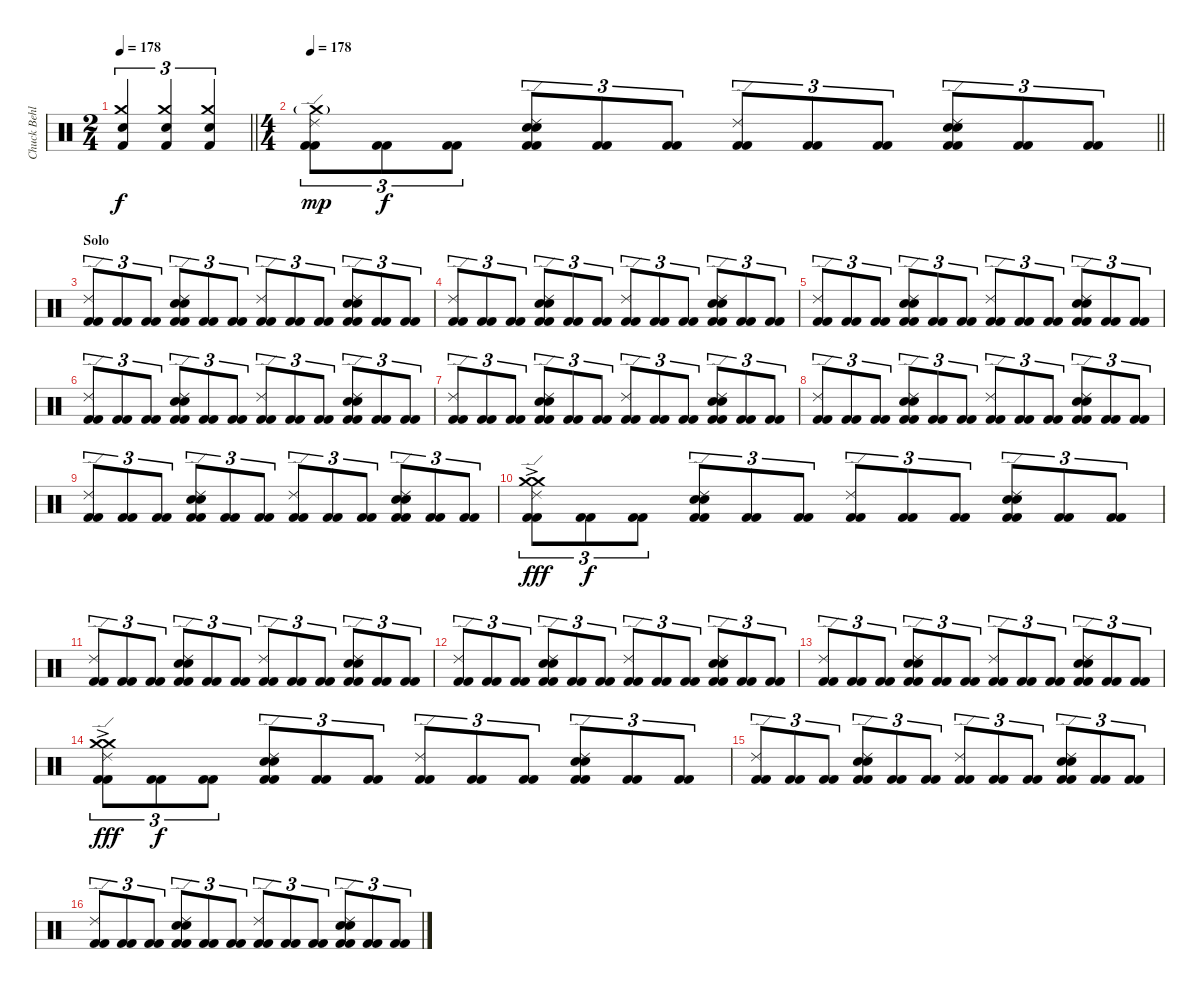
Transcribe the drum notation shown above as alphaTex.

\track ("Chuck Behler" "Chuck Behl") {instrument percussion}
\staff {score}
\articulation defaults
\ts (2 4)
\tempo 178
\clef neutral
\barLineRight lightlight
\ks c
("Electric Snare (hit)" "Crash medium (hit)" "Kick (hit) 2").4{tu (3 2) dy f} ("Electric Snare (hit)" "Crash medium (hit)" "Kick (hit) 2").4{tu (3 2)} ("Electric Snare (hit)" "Crash medium (hit)" "Kick (hit) 2").4{tu (3 2)} |
\ts (4 4)
\section ("" "")
\tempo 178
\barLineRight lightlight
("Crash medium (hit)"{g} "Ride (edge) 2" "Kick (hit) 2" "Kick (hit) 2").8{tu (3 2) dy mp} ("Kick (hit) 2" "Kick (hit) 2").8{tu (3 2) dy f} ("Kick (hit) 2" "Kick (hit) 2").8{tu (3 2)} ("Ride (edge) 2" "Snare (hit) 2" "Electric Snare (hit)" "Kick (hit) 2" "Kick (hit) 2").8{tu (3 2)} ("Kick (hit) 2" "Kick (hit) 2").8{tu (3 2)} ("Kick (hit) 2" "Kick (hit) 2").8{tu (3 2)} ("Ride (edge) 2" "Kick (hit) 2" "Kick (hit) 2").8{tu (3 2)} ("Kick (hit) 2" "Kick (hit) 2").8{tu (3 2)} ("Kick (hit) 2" "Kick (hit) 2").8{tu (3 2)} ("Ride (edge) 2" "Snare (hit) 2" "Electric Snare (hit)" "Kick (hit) 2" "Kick (hit) 2").8{tu (3 2)} ("Kick (hit) 2" "Kick (hit) 2").8{tu (3 2)} ("Kick (hit) 2" "Kick (hit) 2").8{tu (3 2)} |
\section ("" "Solo ")
("Ride (edge) 2" "Kick (hit) 2" "Kick (hit) 2").8{tu (3 2)} ("Kick (hit) 2" "Kick (hit) 2").8{tu (3 2)} ("Kick (hit) 2" "Kick (hit) 2").8{tu (3 2)} ("Ride (edge) 2" "Snare (hit) 2" "Electric Snare (hit)" "Kick (hit) 2" "Kick (hit) 2").8{tu (3 2)} ("Kick (hit) 2" "Kick (hit) 2").8{tu (3 2)} ("Kick (hit) 2" "Kick (hit) 2").8{tu (3 2)} ("Ride (edge) 2" "Kick (hit) 2" "Kick (hit) 2").8{tu (3 2)} ("Kick (hit) 2" "Kick (hit) 2").8{tu (3 2)} ("Kick (hit) 2" "Kick (hit) 2").8{tu (3 2)} ("Ride (edge) 2" "Snare (hit) 2" "Electric Snare (hit)" "Kick (hit) 2" "Kick (hit) 2").8{tu (3 2)} ("Kick (hit) 2" "Kick (hit) 2").8{tu (3 2)} ("Kick (hit) 2" "Kick (hit) 2").8{tu (3 2)} |
("Ride (edge) 2" "Kick (hit) 2" "Kick (hit) 2").8{tu (3 2)} ("Kick (hit) 2" "Kick (hit) 2").8{tu (3 2)} ("Kick (hit) 2" "Kick (hit) 2").8{tu (3 2)} ("Ride (edge) 2" "Snare (hit) 2" "Electric Snare (hit)" "Kick (hit) 2" "Kick (hit) 2").8{tu (3 2)} ("Kick (hit) 2" "Kick (hit) 2").8{tu (3 2)} ("Kick (hit) 2" "Kick (hit) 2").8{tu (3 2)} ("Ride (edge) 2" "Kick (hit) 2" "Kick (hit) 2").8{tu (3 2)} ("Kick (hit) 2" "Kick (hit) 2").8{tu (3 2)} ("Kick (hit) 2" "Kick (hit) 2").8{tu (3 2)} ("Ride (edge) 2" "Snare (hit) 2" "Electric Snare (hit)" "Kick (hit) 2" "Kick (hit) 2").8{tu (3 2)} ("Kick (hit) 2" "Kick (hit) 2").8{tu (3 2)} ("Kick (hit) 2" "Kick (hit) 2").8{tu (3 2)} |
("Ride (edge) 2" "Kick (hit) 2" "Kick (hit) 2").8{tu (3 2)} ("Kick (hit) 2" "Kick (hit) 2").8{tu (3 2)} ("Kick (hit) 2" "Kick (hit) 2").8{tu (3 2)} ("Ride (edge) 2" "Snare (hit) 2" "Electric Snare (hit)" "Kick (hit) 2" "Kick (hit) 2").8{tu (3 2)} ("Kick (hit) 2" "Kick (hit) 2").8{tu (3 2)} ("Kick (hit) 2" "Kick (hit) 2").8{tu (3 2)} ("Ride (edge) 2" "Kick (hit) 2" "Kick (hit) 2").8{tu (3 2)} ("Kick (hit) 2" "Kick (hit) 2").8{tu (3 2)} ("Kick (hit) 2" "Kick (hit) 2").8{tu (3 2)} ("Ride (edge) 2" "Snare (hit) 2" "Electric Snare (hit)" "Kick (hit) 2" "Kick (hit) 2").8{tu (3 2)} ("Kick (hit) 2" "Kick (hit) 2").8{tu (3 2)} ("Kick (hit) 2" "Kick (hit) 2").8{tu (3 2)} |
("Ride (edge) 2" "Kick (hit) 2" "Kick (hit) 2").8{tu (3 2)} ("Kick (hit) 2" "Kick (hit) 2").8{tu (3 2)} ("Kick (hit) 2" "Kick (hit) 2").8{tu (3 2)} ("Ride (edge) 2" "Snare (hit) 2" "Electric Snare (hit)" "Kick (hit) 2" "Kick (hit) 2").8{tu (3 2)} ("Kick (hit) 2" "Kick (hit) 2").8{tu (3 2)} ("Kick (hit) 2" "Kick (hit) 2").8{tu (3 2)} ("Ride (edge) 2" "Kick (hit) 2" "Kick (hit) 2").8{tu (3 2)} ("Kick (hit) 2" "Kick (hit) 2").8{tu (3 2)} ("Kick (hit) 2" "Kick (hit) 2").8{tu (3 2)} ("Ride (edge) 2" "Snare (hit) 2" "Electric Snare (hit)" "Kick (hit) 2" "Kick (hit) 2").8{tu (3 2)} ("Kick (hit) 2" "Kick (hit) 2").8{tu (3 2)} ("Kick (hit) 2" "Kick (hit) 2").8{tu (3 2)} |
("Ride (edge) 2" "Kick (hit) 2" "Kick (hit) 2").8{tu (3 2)} ("Kick (hit) 2" "Kick (hit) 2").8{tu (3 2)} ("Kick (hit) 2" "Kick (hit) 2").8{tu (3 2)} ("Ride (edge) 2" "Snare (hit) 2" "Electric Snare (hit)" "Kick (hit) 2" "Kick (hit) 2").8{tu (3 2)} ("Kick (hit) 2" "Kick (hit) 2").8{tu (3 2)} ("Kick (hit) 2" "Kick (hit) 2").8{tu (3 2)} ("Ride (edge) 2" "Kick (hit) 2" "Kick (hit) 2").8{tu (3 2)} ("Kick (hit) 2" "Kick (hit) 2").8{tu (3 2)} ("Kick (hit) 2" "Kick (hit) 2").8{tu (3 2)} ("Ride (edge) 2" "Snare (hit) 2" "Electric Snare (hit)" "Kick (hit) 2" "Kick (hit) 2").8{tu (3 2)} ("Kick (hit) 2" "Kick (hit) 2").8{tu (3 2)} ("Kick (hit) 2" "Kick (hit) 2").8{tu (3 2)} |
("Ride (edge) 2" "Kick (hit) 2" "Kick (hit) 2").8{tu (3 2)} ("Kick (hit) 2" "Kick (hit) 2").8{tu (3 2)} ("Kick (hit) 2" "Kick (hit) 2").8{tu (3 2)} ("Ride (edge) 2" "Snare (hit) 2" "Electric Snare (hit)" "Kick (hit) 2" "Kick (hit) 2").8{tu (3 2)} ("Kick (hit) 2" "Kick (hit) 2").8{tu (3 2)} ("Kick (hit) 2" "Kick (hit) 2").8{tu (3 2)} ("Ride (edge) 2" "Kick (hit) 2" "Kick (hit) 2").8{tu (3 2)} ("Kick (hit) 2" "Kick (hit) 2").8{tu (3 2)} ("Kick (hit) 2" "Kick (hit) 2").8{tu (3 2)} ("Ride (edge) 2" "Snare (hit) 2" "Electric Snare (hit)" "Kick (hit) 2" "Kick (hit) 2").8{tu (3 2)} ("Kick (hit) 2" "Kick (hit) 2").8{tu (3 2)} ("Kick (hit) 2" "Kick (hit) 2").8{tu (3 2)} |
("Ride (edge) 2" "Kick (hit) 2" "Kick (hit) 2").8{tu (3 2)} ("Kick (hit) 2" "Kick (hit) 2").8{tu (3 2)} ("Kick (hit) 2" "Kick (hit) 2").8{tu (3 2)} ("Ride (edge) 2" "Snare (hit) 2" "Electric Snare (hit)" "Kick (hit) 2" "Kick (hit) 2").8{tu (3 2)} ("Kick (hit) 2" "Kick (hit) 2").8{tu (3 2)} ("Kick (hit) 2" "Kick (hit) 2").8{tu (3 2)} ("Ride (edge) 2" "Kick (hit) 2" "Kick (hit) 2").8{tu (3 2)} ("Kick (hit) 2" "Kick (hit) 2").8{tu (3 2)} ("Kick (hit) 2" "Kick (hit) 2").8{tu (3 2)} ("Ride (edge) 2" "Snare (hit) 2" "Electric Snare (hit)" "Kick (hit) 2" "Kick (hit) 2").8{tu (3 2)} ("Kick (hit) 2" "Kick (hit) 2").8{tu (3 2)} ("Kick (hit) 2" "Kick (hit) 2").8{tu (3 2)} |
("Crash medium (hit)"{ac} "Crash medium (hit)"{ac} "Ride (edge) 2" "Kick (hit) 2" "Kick (hit) 2").8{tu (3 2) dy fff} ("Kick (hit) 2" "Kick (hit) 2").8{tu (3 2) dy f} ("Kick (hit) 2" "Kick (hit) 2").8{tu (3 2)} ("Ride (edge) 2" "Snare (hit) 2" "Electric Snare (hit)" "Kick (hit) 2" "Kick (hit) 2").8{tu (3 2)} ("Kick (hit) 2" "Kick (hit) 2").8{tu (3 2)} ("Kick (hit) 2" "Kick (hit) 2").8{tu (3 2)} ("Ride (edge) 2" "Kick (hit) 2" "Kick (hit) 2").8{tu (3 2)} ("Kick (hit) 2" "Kick (hit) 2").8{tu (3 2)} ("Kick (hit) 2" "Kick (hit) 2").8{tu (3 2)} ("Ride (edge) 2" "Snare (hit) 2" "Electric Snare (hit)" "Kick (hit) 2" "Kick (hit) 2").8{tu (3 2)} ("Kick (hit) 2" "Kick (hit) 2").8{tu (3 2)} ("Kick (hit) 2" "Kick (hit) 2").8{tu (3 2)} |
("Ride (edge) 2" "Kick (hit) 2" "Kick (hit) 2").8{tu (3 2)} ("Kick (hit) 2" "Kick (hit) 2").8{tu (3 2)} ("Kick (hit) 2" "Kick (hit) 2").8{tu (3 2)} ("Ride (edge) 2" "Snare (hit) 2" "Electric Snare (hit)" "Kick (hit) 2" "Kick (hit) 2").8{tu (3 2)} ("Kick (hit) 2" "Kick (hit) 2").8{tu (3 2)} ("Kick (hit) 2" "Kick (hit) 2").8{tu (3 2)} ("Ride (edge) 2" "Kick (hit) 2" "Kick (hit) 2").8{tu (3 2)} ("Kick (hit) 2" "Kick (hit) 2").8{tu (3 2)} ("Kick (hit) 2" "Kick (hit) 2").8{tu (3 2)} ("Ride (edge) 2" "Snare (hit) 2" "Electric Snare (hit)" "Kick (hit) 2" "Kick (hit) 2").8{tu (3 2)} ("Kick (hit) 2" "Kick (hit) 2").8{tu (3 2)} ("Kick (hit) 2" "Kick (hit) 2").8{tu (3 2)} |
("Ride (edge) 2" "Kick (hit) 2" "Kick (hit) 2").8{tu (3 2)} ("Kick (hit) 2" "Kick (hit) 2").8{tu (3 2)} ("Kick (hit) 2" "Kick (hit) 2").8{tu (3 2)} ("Ride (edge) 2" "Snare (hit) 2" "Electric Snare (hit)" "Kick (hit) 2" "Kick (hit) 2").8{tu (3 2)} ("Kick (hit) 2" "Kick (hit) 2").8{tu (3 2)} ("Kick (hit) 2" "Kick (hit) 2").8{tu (3 2)} ("Ride (edge) 2" "Kick (hit) 2" "Kick (hit) 2").8{tu (3 2)} ("Kick (hit) 2" "Kick (hit) 2").8{tu (3 2)} ("Kick (hit) 2" "Kick (hit) 2").8{tu (3 2)} ("Ride (edge) 2" "Snare (hit) 2" "Electric Snare (hit)" "Kick (hit) 2" "Kick (hit) 2").8{tu (3 2)} ("Kick (hit) 2" "Kick (hit) 2").8{tu (3 2)} ("Kick (hit) 2" "Kick (hit) 2").8{tu (3 2)} |
("Ride (edge) 2" "Kick (hit) 2" "Kick (hit) 2").8{tu (3 2)} ("Kick (hit) 2" "Kick (hit) 2").8{tu (3 2)} ("Kick (hit) 2" "Kick (hit) 2").8{tu (3 2)} ("Ride (edge) 2" "Snare (hit) 2" "Electric Snare (hit)" "Kick (hit) 2" "Kick (hit) 2").8{tu (3 2)} ("Kick (hit) 2" "Kick (hit) 2").8{tu (3 2)} ("Kick (hit) 2" "Kick (hit) 2").8{tu (3 2)} ("Ride (edge) 2" "Kick (hit) 2" "Kick (hit) 2").8{tu (3 2)} ("Kick (hit) 2" "Kick (hit) 2").8{tu (3 2)} ("Kick (hit) 2" "Kick (hit) 2").8{tu (3 2)} ("Ride (edge) 2" "Snare (hit) 2" "Electric Snare (hit)" "Kick (hit) 2" "Kick (hit) 2").8{tu (3 2)} ("Kick (hit) 2" "Kick (hit) 2").8{tu (3 2)} ("Kick (hit) 2" "Kick (hit) 2").8{tu (3 2)} |
("Crash medium (hit)"{ac} "Crash medium (hit)"{ac} "Ride (edge) 2" "Kick (hit) 2" "Kick (hit) 2").8{tu (3 2) dy fff} ("Kick (hit) 2" "Kick (hit) 2").8{tu (3 2) dy f} ("Kick (hit) 2" "Kick (hit) 2").8{tu (3 2)} ("Ride (edge) 2" "Snare (hit) 2" "Electric Snare (hit)" "Kick (hit) 2" "Kick (hit) 2").8{tu (3 2)} ("Kick (hit) 2" "Kick (hit) 2").8{tu (3 2)} ("Kick (hit) 2" "Kick (hit) 2").8{tu (3 2)} ("Ride (edge) 2" "Kick (hit) 2" "Kick (hit) 2").8{tu (3 2)} ("Kick (hit) 2" "Kick (hit) 2").8{tu (3 2)} ("Kick (hit) 2" "Kick (hit) 2").8{tu (3 2)} ("Ride (edge) 2" "Snare (hit) 2" "Electric Snare (hit)" "Kick (hit) 2" "Kick (hit) 2").8{tu (3 2)} ("Kick (hit) 2" "Kick (hit) 2").8{tu (3 2)} ("Kick (hit) 2" "Kick (hit) 2").8{tu (3 2)} |
("Ride (edge) 2" "Kick (hit) 2" "Kick (hit) 2").8{tu (3 2)} ("Kick (hit) 2" "Kick (hit) 2").8{tu (3 2)} ("Kick (hit) 2" "Kick (hit) 2").8{tu (3 2)} ("Ride (edge) 2" "Snare (hit) 2" "Electric Snare (hit)" "Kick (hit) 2" "Kick (hit) 2").8{tu (3 2)} ("Kick (hit) 2" "Kick (hit) 2").8{tu (3 2)} ("Kick (hit) 2" "Kick (hit) 2").8{tu (3 2)} ("Ride (edge) 2" "Kick (hit) 2" "Kick (hit) 2").8{tu (3 2)} ("Kick (hit) 2" "Kick (hit) 2").8{tu (3 2)} ("Kick (hit) 2" "Kick (hit) 2").8{tu (3 2)} ("Ride (edge) 2" "Snare (hit) 2" "Electric Snare (hit)" "Kick (hit) 2" "Kick (hit) 2").8{tu (3 2)} ("Kick (hit) 2" "Kick (hit) 2").8{tu (3 2)} ("Kick (hit) 2" "Kick (hit) 2").8{tu (3 2)} |
("Ride (edge) 2" "Kick (hit) 2" "Kick (hit) 2").8{tu (3 2)} ("Kick (hit) 2" "Kick (hit) 2").8{tu (3 2)} ("Kick (hit) 2" "Kick (hit) 2").8{tu (3 2)} ("Ride (edge) 2" "Snare (hit) 2" "Electric Snare (hit)" "Kick (hit) 2" "Kick (hit) 2").8{tu (3 2)} ("Kick (hit) 2" "Kick (hit) 2").8{tu (3 2)} ("Kick (hit) 2" "Kick (hit) 2").8{tu (3 2)} ("Ride (edge) 2" "Kick (hit) 2" "Kick (hit) 2").8{tu (3 2)} ("Kick (hit) 2" "Kick (hit) 2").8{tu (3 2)} ("Kick (hit) 2" "Kick (hit) 2").8{tu (3 2)} ("Ride (edge) 2" "Snare (hit) 2" "Electric Snare (hit)" "Kick (hit) 2" "Kick (hit) 2").8{tu (3 2)} ("Kick (hit) 2" "Kick (hit) 2").8{tu (3 2)} ("Kick (hit) 2" "Kick (hit) 2").8{tu (3 2)}
